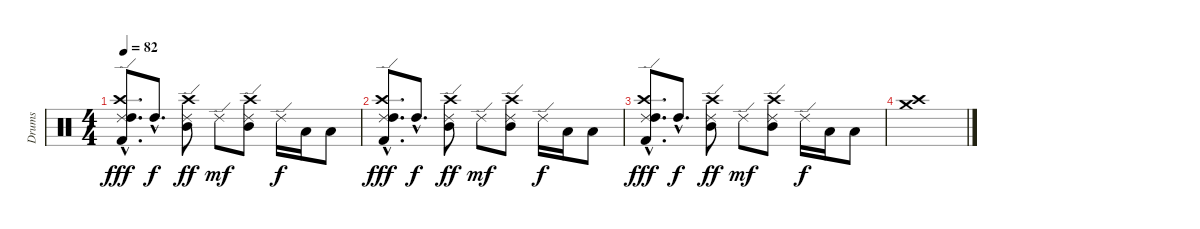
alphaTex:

\track ("Drums" "Drums") {instrument percussion}
\staff {score}
\articulation defaults
\ts (4 4)
\tempo 82
\clef neutral
\ks c
("Ride (edge) 2"{hac} "Crash high (hit)"{hac} "High Tom (hit)"{hac} "Kick (hit) 2"{hac}).8{d dy fff} "High Tom (hit)"{hac}.8{d dy f} ("Ride (edge) 2" "Crash high (hit)" "Mid Tom (hit)").8{dy ff} "Ride (edge) 2".8{dy mf} ("Ride (edge) 2" "Crash high (hit)" "Mid Tom (hit)").8 "Ride (edge) 2".16{dy f} "Low Tom (hit)".16 "Low Tom (hit)".8 |
("Ride (edge) 2"{hac} "Crash high (hit)"{hac} "High Tom (hit)"{hac} "Kick (hit) 2"{hac}).8{d dy fff} "High Tom (hit)"{hac}.8{d dy f} ("Ride (edge) 2" "Crash high (hit)" "Mid Tom (hit)").8{dy ff} "Ride (edge) 2".8{dy mf} ("Ride (edge) 2" "Crash high (hit)" "Mid Tom (hit)").8 "Ride (edge) 2".16{dy f} "Low Tom (hit)".16 "Low Tom (hit)".8 |
("Ride (edge) 2"{hac} "Crash high (hit)"{hac} "High Tom (hit)"{hac} "Kick (hit) 2"{hac}).8{d dy fff} "High Tom (hit)"{hac}.8{d dy f} ("Ride (edge) 2" "Crash high (hit)" "Mid Tom (hit)").8{dy ff} "Ride (edge) 2".8{dy mf} ("Ride (edge) 2" "Crash high (hit)" "Mid Tom (hit)").8 "Ride (edge) 2".16{dy f} "Low Tom (hit)".16 "Low Tom (hit)".8 |
("Crash medium (hit)" "Crash high (hit)").1
